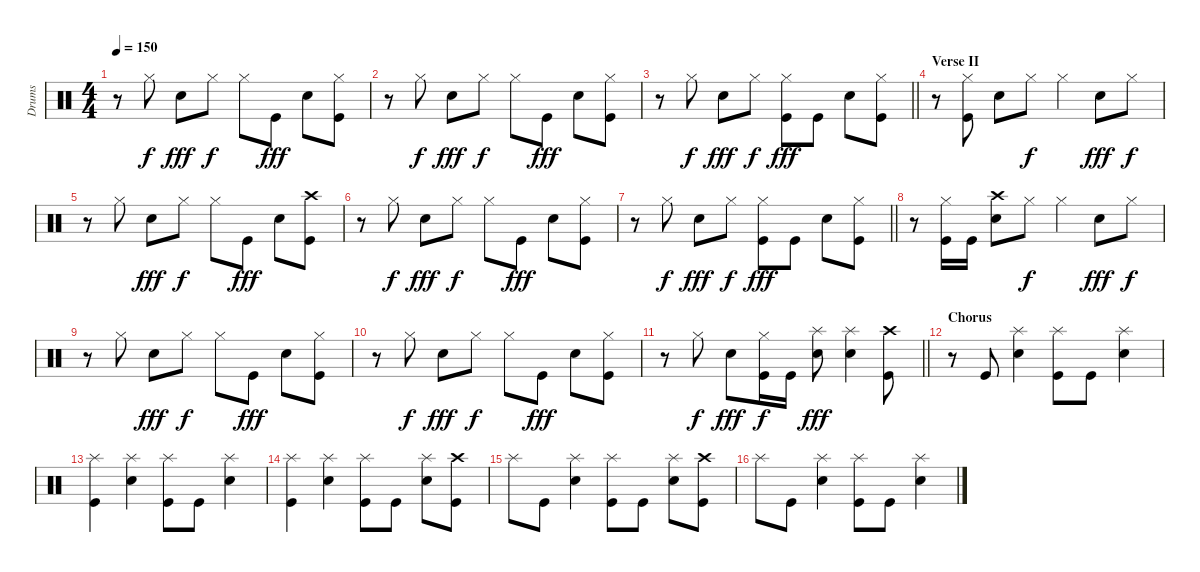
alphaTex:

\track ("Drums" "Drums") {instrument percussion}
\staff {score}
\articulation defaults
\ts (4 4)
\tempo 150
\clef neutral
\ks c
r.8{dy f} "Hi-Hat (closed)".8 "Snare (hit) 2".8{dy fff} "Hi-Hat (closed)".8{dy f} "Hi-Hat (closed)".8 "Kick (hit)".8{dy fff} "Snare (hit) 2".8 ("Hi-Hat (closed)" "Kick (hit)").8 |
r.8 "Hi-Hat (closed)".8{dy f} "Snare (hit) 2".8{dy fff} "Hi-Hat (closed)".8{dy f} "Hi-Hat (closed)".8 "Kick (hit)".8{dy fff} "Snare (hit) 2".8 ("Hi-Hat (closed)" "Kick (hit)").8 |
\barLineRight lightlight
r.8 "Hi-Hat (closed)".8{dy f} "Snare (hit) 2".8{dy fff} "Hi-Hat (closed)".8{dy f} ("Hi-Hat (closed)" "Kick (hit)").8{dy fff} "Kick (hit)".8 "Snare (hit) 2".8 ("Hi-Hat (closed)" "Kick (hit)").8 |
\section ("" "Verse II")
r.8 ("Hi-Hat (closed)" "Kick (hit)").8 "Snare (hit) 2".8 "Hi-Hat (closed)".8{dy f} "Hi-Hat (closed)".4 "Snare (hit) 2".8{dy fff} "Hi-Hat (closed)".8{dy f} |
r.8 "Hi-Hat (closed)".8 "Snare (hit) 2".8{dy fff} "Hi-Hat (closed)".8{dy f} "Hi-Hat (closed)".8 "Kick (hit)".8{dy fff} "Snare (hit) 2".8 ("Crash high (hit)" "Kick (hit)").8 |
r.8 "Hi-Hat (closed)".8{dy f} "Snare (hit) 2".8{dy fff} "Hi-Hat (closed)".8{dy f} "Hi-Hat (closed)".8 "Kick (hit)".8{dy fff} "Snare (hit) 2".8 ("Hi-Hat (closed)" "Kick (hit)").8 |
\barLineRight lightlight
r.8 "Hi-Hat (closed)".8{dy f} "Snare (hit) 2".8{dy fff} "Hi-Hat (closed)".8{dy f} ("Hi-Hat (closed)" "Kick (hit)").8{dy fff} "Kick (hit)".8 "Snare (hit) 2".8 ("Hi-Hat (closed)" "Kick (hit)").8 |
r.8 ("Hi-Hat (closed)" "Kick (hit)").16 "Kick (hit)".16 ("Crash high (hit)" "Snare (hit) 2").8 "Hi-Hat (closed)".8{dy f} "Hi-Hat (closed)".4 "Snare (hit) 2".8{dy fff} "Hi-Hat (closed)".8{dy f} |
r.8 "Hi-Hat (closed)".8 "Snare (hit) 2".8{dy fff} "Hi-Hat (closed)".8{dy f} "Hi-Hat (closed)".8 "Kick (hit)".8{dy fff} "Snare (hit) 2".8 ("Hi-Hat (closed)" "Kick (hit)").8 |
r.8 "Hi-Hat (closed)".8{dy f} "Snare (hit) 2".8{dy fff} "Hi-Hat (closed)".8{dy f} "Hi-Hat (closed)".8 "Kick (hit)".8{dy fff} "Snare (hit) 2".8 ("Hi-Hat (closed)" "Kick (hit)").8 |
\barLineRight lightlight
r.8 "Hi-Hat (closed)".8{dy f} "Snare (hit) 2".8{dy fff} ("Hi-Hat (closed)" "Kick (hit)").16{dy f} "Kick (hit)".16 ("Splash (hit)" "Snare (hit) 2").8{dy fff} ("Splash (hit)" "Snare (hit) 2").4 ("Crash high (hit)" "Kick (hit)").8 |
\section ("" "Chorus")
r.8 "Kick (hit)".8 ("Splash (hit)" "Snare (hit) 2").4 ("Splash (hit)" "Kick (hit)").8 "Kick (hit)".8 ("Splash (hit)" "Snare (hit) 2").4 |
("Splash (hit)" "Kick (hit)").4 ("Splash (hit)" "Snare (hit) 2").4 ("Splash (hit)" "Kick (hit)").8 "Kick (hit)".8 ("Splash (hit)" "Snare (hit) 2").4 |
("Splash (hit)" "Kick (hit)").4 ("Splash (hit)" "Snare (hit) 2").4 ("Splash (hit)" "Kick (hit)").8 "Kick (hit)".8 ("Splash (hit)" "Snare (hit) 2").8 ("Crash high (hit)" "Kick (hit)").8 |
"Splash (hit)".8 "Kick (hit)".8 ("Splash (hit)" "Snare (hit) 2").4 ("Splash (hit)" "Kick (hit)").8 "Kick (hit)".8 ("Splash (hit)" "Snare (hit) 2").8 ("Crash high (hit)" "Kick (hit)").8 |
"Splash (hit)".8 "Kick (hit)".8 ("Splash (hit)" "Snare (hit) 2").4 ("Splash (hit)" "Kick (hit)").8 "Kick (hit)".8 ("Splash (hit)" "Snare (hit) 2").4
